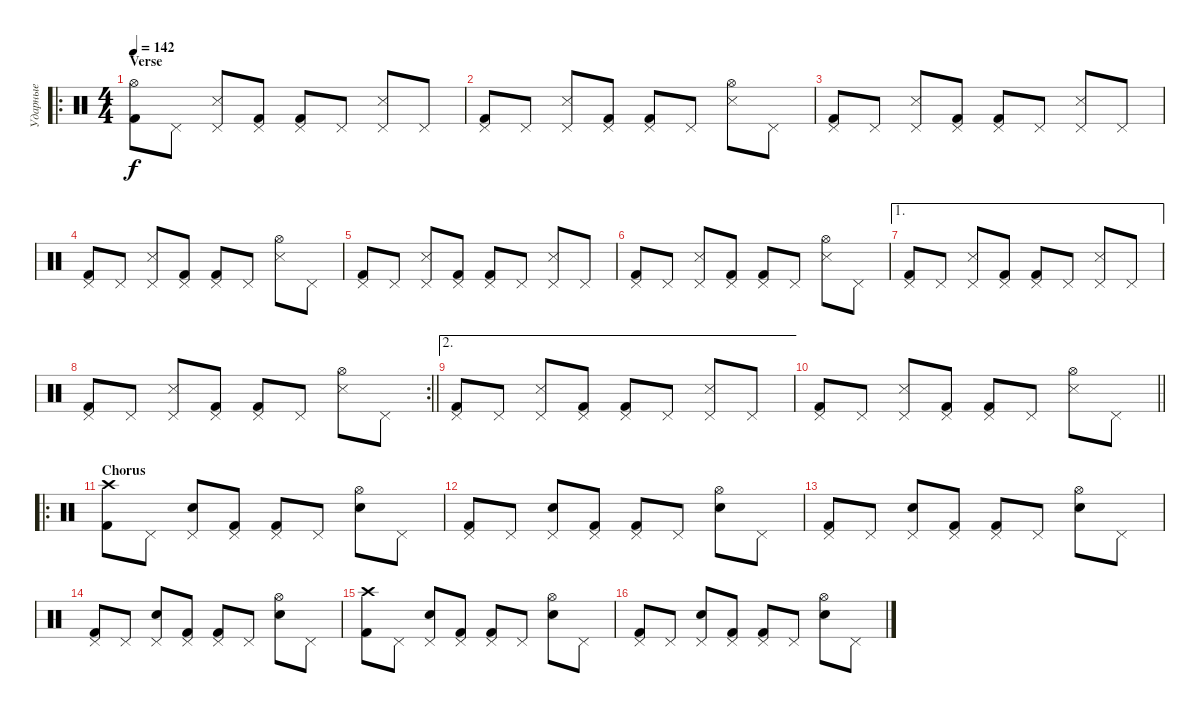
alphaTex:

\track ("Ударные" "Ударные") {instrument percussion}
\staff {score}
\articulation defaults
\ro
\ts (4 4)
\section ("" "Verse")
\tempo 142
\clef neutral
\ks c
("Hi-Hat (open)" "Kick (hit) 2").8{dy f} "Pedal Hi-Hat (hit)".8 ("Pedal Hi-Hat (hit)" "Snare (side stick) 3").8 ("Pedal Hi-Hat (hit)" "Kick (hit) 2").8 ("Pedal Hi-Hat (hit)" "Kick (hit) 2").8 "Pedal Hi-Hat (hit)".8 ("Pedal Hi-Hat (hit)" "Snare (side stick) 3").8 "Pedal Hi-Hat (hit)".8 |
("Pedal Hi-Hat (hit)" "Kick (hit) 2").8 "Pedal Hi-Hat (hit)".8 ("Pedal Hi-Hat (hit)" "Snare (side stick) 3").8 ("Pedal Hi-Hat (hit)" "Kick (hit) 2").8 ("Pedal Hi-Hat (hit)" "Kick (hit) 2").8 "Pedal Hi-Hat (hit)".8 ("Hi-Hat (open)" "Snare (side stick) 3").8 "Pedal Hi-Hat (hit)".8 |
("Pedal Hi-Hat (hit)" "Kick (hit) 2").8 "Pedal Hi-Hat (hit)".8 ("Pedal Hi-Hat (hit)" "Snare (side stick) 3").8 ("Pedal Hi-Hat (hit)" "Kick (hit) 2").8 ("Pedal Hi-Hat (hit)" "Kick (hit) 2").8 "Pedal Hi-Hat (hit)".8 ("Pedal Hi-Hat (hit)" "Snare (side stick) 3").8 "Pedal Hi-Hat (hit)".8 |
("Pedal Hi-Hat (hit)" "Kick (hit) 2").8 "Pedal Hi-Hat (hit)".8 ("Pedal Hi-Hat (hit)" "Snare (side stick) 3").8 ("Pedal Hi-Hat (hit)" "Kick (hit) 2").8 ("Pedal Hi-Hat (hit)" "Kick (hit) 2").8 "Pedal Hi-Hat (hit)".8 ("Hi-Hat (open)" "Snare (side stick) 3").8 "Pedal Hi-Hat (hit)".8 |
("Pedal Hi-Hat (hit)" "Kick (hit) 2").8 "Pedal Hi-Hat (hit)".8 ("Pedal Hi-Hat (hit)" "Snare (side stick) 3").8 ("Pedal Hi-Hat (hit)" "Kick (hit) 2").8 ("Pedal Hi-Hat (hit)" "Kick (hit) 2").8 "Pedal Hi-Hat (hit)".8 ("Pedal Hi-Hat (hit)" "Snare (side stick) 3").8 "Pedal Hi-Hat (hit)".8 |
("Pedal Hi-Hat (hit)" "Kick (hit) 2").8 "Pedal Hi-Hat (hit)".8 ("Pedal Hi-Hat (hit)" "Snare (side stick) 3").8 ("Pedal Hi-Hat (hit)" "Kick (hit) 2").8 ("Pedal Hi-Hat (hit)" "Kick (hit) 2").8 "Pedal Hi-Hat (hit)".8 ("Hi-Hat (open)" "Snare (side stick) 3").8 "Pedal Hi-Hat (hit)".8 |
\ae 1
("Pedal Hi-Hat (hit)" "Kick (hit) 2").8 "Pedal Hi-Hat (hit)".8 ("Pedal Hi-Hat (hit)" "Snare (side stick) 3").8 ("Pedal Hi-Hat (hit)" "Kick (hit) 2").8 ("Pedal Hi-Hat (hit)" "Kick (hit) 2").8 "Pedal Hi-Hat (hit)".8 ("Pedal Hi-Hat (hit)" "Snare (side stick) 3").8 "Pedal Hi-Hat (hit)".8 |
\rc 2
\barLineRight lightlight
("Pedal Hi-Hat (hit)" "Kick (hit) 2").8 "Pedal Hi-Hat (hit)".8 ("Pedal Hi-Hat (hit)" "Snare (side stick) 3").8 ("Pedal Hi-Hat (hit)" "Kick (hit) 2").8 ("Pedal Hi-Hat (hit)" "Kick (hit) 2").8 "Pedal Hi-Hat (hit)".8 ("Hi-Hat (open)" "Snare (side stick) 3").8 "Pedal Hi-Hat (hit)".8 |
\ae 2
("Pedal Hi-Hat (hit)" "Kick (hit) 2").8 "Pedal Hi-Hat (hit)".8 ("Pedal Hi-Hat (hit)" "Snare (side stick) 3").8 ("Pedal Hi-Hat (hit)" "Kick (hit) 2").8 ("Pedal Hi-Hat (hit)" "Kick (hit) 2").8 "Pedal Hi-Hat (hit)".8 ("Pedal Hi-Hat (hit)" "Snare (side stick) 3").8 "Pedal Hi-Hat (hit)".8 |
\barLineRight lightlight
("Pedal Hi-Hat (hit)" "Kick (hit) 2").8 "Pedal Hi-Hat (hit)".8 ("Pedal Hi-Hat (hit)" "Snare (side stick) 3").8 ("Pedal Hi-Hat (hit)" "Kick (hit) 2").8 ("Pedal Hi-Hat (hit)" "Kick (hit) 2").8 "Pedal Hi-Hat (hit)".8 ("Hi-Hat (open)" "Snare (side stick) 3").8 "Pedal Hi-Hat (hit)".8 |
\ro
\section ("" "Chorus")
("Crash high (hit)" "Kick (hit) 2").8 "Pedal Hi-Hat (hit)".8 ("Pedal Hi-Hat (hit)" "Snare (hit) 2").8 ("Pedal Hi-Hat (hit)" "Kick (hit) 2").8 ("Pedal Hi-Hat (hit)" "Kick (hit) 2").8 "Pedal Hi-Hat (hit)".8 ("Hi-Hat (open)" "Snare (hit) 2").8 "Pedal Hi-Hat (hit)".8 |
("Pedal Hi-Hat (hit)" "Kick (hit) 2").8 "Pedal Hi-Hat (hit)".8 ("Pedal Hi-Hat (hit)" "Snare (hit) 2").8 ("Pedal Hi-Hat (hit)" "Kick (hit) 2").8 ("Pedal Hi-Hat (hit)" "Kick (hit) 2").8 "Pedal Hi-Hat (hit)".8 ("Hi-Hat (open)" "Snare (hit) 2").8 "Pedal Hi-Hat (hit)".8 |
("Pedal Hi-Hat (hit)" "Kick (hit) 2").8 "Pedal Hi-Hat (hit)".8 ("Pedal Hi-Hat (hit)" "Snare (hit) 2").8 ("Pedal Hi-Hat (hit)" "Kick (hit) 2").8 ("Pedal Hi-Hat (hit)" "Kick (hit) 2").8 "Pedal Hi-Hat (hit)".8 ("Hi-Hat (open)" "Snare (hit) 2").8 "Pedal Hi-Hat (hit)".8 |
("Pedal Hi-Hat (hit)" "Kick (hit) 2").8 "Pedal Hi-Hat (hit)".8 ("Pedal Hi-Hat (hit)" "Snare (hit) 2").8 ("Pedal Hi-Hat (hit)" "Kick (hit) 2").8 ("Pedal Hi-Hat (hit)" "Kick (hit) 2").8 "Pedal Hi-Hat (hit)".8 ("Hi-Hat (open)" "Snare (hit) 2").8 "Pedal Hi-Hat (hit)".8 |
("Crash high (hit)" "Kick (hit) 2").8 "Pedal Hi-Hat (hit)".8 ("Pedal Hi-Hat (hit)" "Snare (hit) 2").8 ("Pedal Hi-Hat (hit)" "Kick (hit) 2").8 ("Pedal Hi-Hat (hit)" "Kick (hit) 2").8 "Pedal Hi-Hat (hit)".8 ("Hi-Hat (open)" "Snare (hit) 2").8 "Pedal Hi-Hat (hit)".8 |
("Pedal Hi-Hat (hit)" "Kick (hit) 2").8 "Pedal Hi-Hat (hit)".8 ("Pedal Hi-Hat (hit)" "Snare (hit) 2").8 ("Pedal Hi-Hat (hit)" "Kick (hit) 2").8 ("Pedal Hi-Hat (hit)" "Kick (hit) 2").8 "Pedal Hi-Hat (hit)".8 ("Hi-Hat (open)" "Snare (hit) 2").8 "Pedal Hi-Hat (hit)".8
